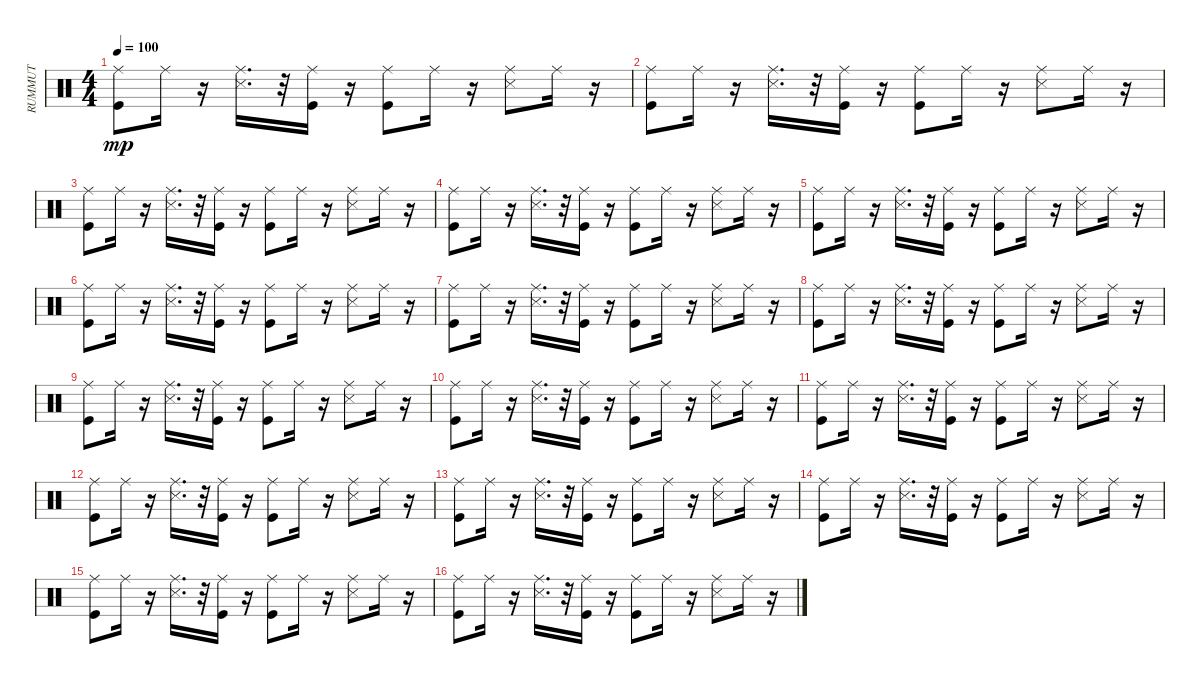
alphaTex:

\track ("RUMMUT" "RUMMUT") {instrument percussion}
\staff {score}
\articulation defaults
\ts (4 4)
\tempo 100
\clef neutral
\ks c
("Kick (hit)" "Ride (middle)").8{dy mp} "Ride (middle)".16 r.16 ("Snare (side stick) 3" "Ride (middle)").16{d} r.32 ("Ride (middle)" "Kick (hit)").16 r.16 ("Ride (middle)" "Kick (hit)").8 "Ride (middle)".16 r.16 ("Snare (side stick) 3" "Ride (middle)").8 "Ride (middle)".16 r.16 |
("Kick (hit)" "Ride (middle)").8 "Ride (middle)".16 r.16 ("Snare (side stick) 3" "Ride (middle)").16{d} r.32 ("Ride (middle)" "Kick (hit)").16 r.16 ("Ride (middle)" "Kick (hit)").8 "Ride (middle)".16 r.16 ("Snare (side stick) 3" "Ride (middle)").8 "Ride (middle)".16 r.16 |
("Kick (hit)" "Ride (middle)").8 "Ride (middle)".16 r.16 ("Snare (side stick) 3" "Ride (middle)").16{d} r.32 ("Ride (middle)" "Kick (hit)").16 r.16 ("Ride (middle)" "Kick (hit)").8 "Ride (middle)".16 r.16 ("Snare (side stick) 3" "Ride (middle)").8 "Ride (middle)".16 r.16 |
("Kick (hit)" "Ride (middle)").8 "Ride (middle)".16 r.16 ("Snare (side stick) 3" "Ride (middle)").16{d} r.32 ("Ride (middle)" "Kick (hit)").16 r.16 ("Ride (middle)" "Kick (hit)").8 "Ride (middle)".16 r.16 ("Snare (side stick) 3" "Ride (middle)").8 "Ride (middle)".16 r.16 |
("Kick (hit)" "Ride (middle)").8 "Ride (middle)".16 r.16 ("Snare (side stick) 3" "Ride (middle)").16{d} r.32 ("Ride (middle)" "Kick (hit)").16 r.16 ("Ride (middle)" "Kick (hit)").8 "Ride (middle)".16 r.16 ("Snare (side stick) 3" "Ride (middle)").8 "Ride (middle)".16 r.16 |
("Kick (hit)" "Ride (middle)").8 "Ride (middle)".16 r.16 ("Snare (side stick) 3" "Ride (middle)").16{d} r.32 ("Ride (middle)" "Kick (hit)").16 r.16 ("Ride (middle)" "Kick (hit)").8 "Ride (middle)".16 r.16 ("Snare (side stick) 3" "Ride (middle)").8 "Ride (middle)".16 r.16 |
("Kick (hit)" "Ride (middle)").8 "Ride (middle)".16 r.16 ("Snare (side stick) 3" "Ride (middle)").16{d} r.32 ("Ride (middle)" "Kick (hit)").16 r.16 ("Ride (middle)" "Kick (hit)").8 "Ride (middle)".16 r.16 ("Snare (side stick) 3" "Ride (middle)").8 "Ride (middle)".16 r.16 |
("Kick (hit)" "Ride (middle)").8 "Ride (middle)".16 r.16 ("Snare (side stick) 3" "Ride (middle)").16{d} r.32 ("Ride (middle)" "Kick (hit)").16 r.16 ("Ride (middle)" "Kick (hit)").8 "Ride (middle)".16 r.16 ("Snare (side stick) 3" "Ride (middle)").8 "Ride (middle)".16 r.16 |
("Kick (hit)" "Ride (middle)").8 "Ride (middle)".16 r.16 ("Snare (side stick) 3" "Ride (middle)").16{d} r.32 ("Ride (middle)" "Kick (hit)").16 r.16 ("Ride (middle)" "Kick (hit)").8 "Ride (middle)".16 r.16 ("Snare (side stick) 3" "Ride (middle)").8 "Ride (middle)".16 r.16 |
("Kick (hit)" "Ride (middle)").8 "Ride (middle)".16 r.16 ("Snare (side stick) 3" "Ride (middle)").16{d} r.32 ("Ride (middle)" "Kick (hit)").16 r.16 ("Ride (middle)" "Kick (hit)").8 "Ride (middle)".16 r.16 ("Snare (side stick) 3" "Ride (middle)").8 "Ride (middle)".16 r.16 |
("Kick (hit)" "Ride (middle)").8 "Ride (middle)".16 r.16 ("Snare (side stick) 3" "Ride (middle)").16{d} r.32 ("Ride (middle)" "Kick (hit)").16 r.16 ("Ride (middle)" "Kick (hit)").8 "Ride (middle)".16 r.16 ("Snare (side stick) 3" "Ride (middle)").8 "Ride (middle)".16 r.16 |
("Kick (hit)" "Ride (middle)").8 "Ride (middle)".16 r.16 ("Snare (side stick) 3" "Ride (middle)").16{d} r.32 ("Ride (middle)" "Kick (hit)").16 r.16 ("Ride (middle)" "Kick (hit)").8 "Ride (middle)".16 r.16 ("Snare (side stick) 3" "Ride (middle)").8 "Ride (middle)".16 r.16 |
("Kick (hit)" "Ride (middle)").8 "Ride (middle)".16 r.16 ("Snare (side stick) 3" "Ride (middle)").16{d} r.32 ("Ride (middle)" "Kick (hit)").16 r.16 ("Ride (middle)" "Kick (hit)").8 "Ride (middle)".16 r.16 ("Snare (side stick) 3" "Ride (middle)").8 "Ride (middle)".16 r.16 |
("Kick (hit)" "Ride (middle)").8 "Ride (middle)".16 r.16 ("Snare (side stick) 3" "Ride (middle)").16{d} r.32 ("Ride (middle)" "Kick (hit)").16 r.16 ("Ride (middle)" "Kick (hit)").8 "Ride (middle)".16 r.16 ("Snare (side stick) 3" "Ride (middle)").8 "Ride (middle)".16 r.16 |
("Kick (hit)" "Ride (middle)").8 "Ride (middle)".16 r.16 ("Snare (side stick) 3" "Ride (middle)").16{d} r.32 ("Ride (middle)" "Kick (hit)").16 r.16 ("Ride (middle)" "Kick (hit)").8 "Ride (middle)".16 r.16 ("Snare (side stick) 3" "Ride (middle)").8 "Ride (middle)".16 r.16 |
("Kick (hit)" "Ride (middle)").8 "Ride (middle)".16 r.16 ("Snare (side stick) 3" "Ride (middle)").16{d} r.32 ("Ride (middle)" "Kick (hit)").16 r.16 ("Ride (middle)" "Kick (hit)").8 "Ride (middle)".16 r.16 ("Snare (side stick) 3" "Ride (middle)").8 "Ride (middle)".16 r.16
